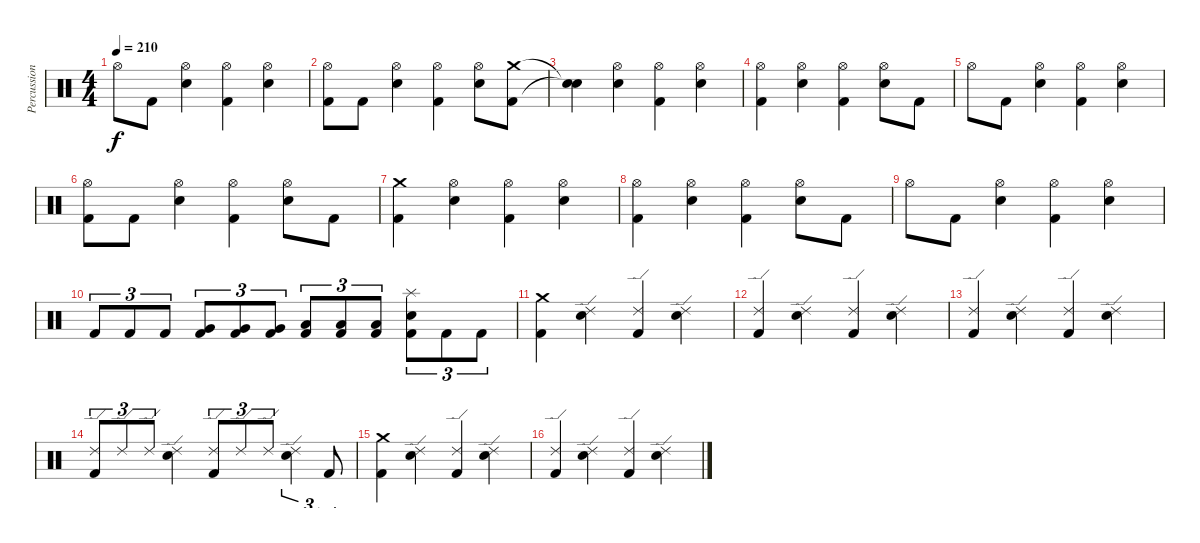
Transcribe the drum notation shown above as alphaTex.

\track ("Percussions" "Percussion") {instrument percussion}
\staff {score}
\articulation defaults
\ts (4 4)
\tempo 210
\clef neutral
\ks c "Hi-Hat (open)".8{dy f} "Kick (hit) 2".8
("Hi-Hat (open)" "Snare (hit) 2").4 ("Hi-Hat (open)" "Kick (hit) 2").4 ("Hi-Hat (open)" "Snare (hit) 2").4 |
("Hi-Hat (open)" "Kick (hit) 2").8 "Kick (hit) 2".8 ("Hi-Hat (open)" "Snare (hit) 2").4 ("Hi-Hat (open)" "Kick (hit) 2").4 ("Hi-Hat (open)" "Snare (hit) 2").8 ("Crash medium (hit)" "Kick (hit) 2").8 |
("Snare (hit)"{t} "Snare (hit)"{t}).4 ("Hi-Hat (open)" "Snare (hit) 2").4 ("Hi-Hat (open)" "Kick (hit) 2").4 ("Hi-Hat (open)" "Snare (hit) 2").4 |
("Hi-Hat (open)" "Kick (hit) 2").4 ("Hi-Hat (open)" "Snare (hit) 2").4 ("Hi-Hat (open)" "Kick (hit) 2").4 ("Hi-Hat (open)" "Snare (hit) 2").8 "Kick (hit) 2".8 |
"Hi-Hat (open)".8 "Kick (hit) 2".8 ("Hi-Hat (open)" "Snare (hit) 2").4 ("Hi-Hat (open)" "Kick (hit) 2").4 ("Hi-Hat (open)" "Snare (hit) 2").4 |
("Hi-Hat (open)" "Kick (hit) 2").8 "Kick (hit) 2".8 ("Hi-Hat (open)" "Snare (hit) 2").4 ("Hi-Hat (open)" "Kick (hit) 2").4 ("Hi-Hat (open)" "Snare (hit) 2").8 "Kick (hit) 2".8 |
("Crash medium (hit)" "Kick (hit) 2").4 ("Hi-Hat (open)" "Snare (hit) 2").4 ("Hi-Hat (open)" "Kick (hit) 2").4 ("Hi-Hat (open)" "Snare (hit) 2").4 |
("Hi-Hat (open)" "Kick (hit) 2").4 ("Hi-Hat (open)" "Snare (hit) 2").4 ("Hi-Hat (open)" "Kick (hit) 2").4 ("Hi-Hat (open)" "Snare (hit) 2").8 "Kick (hit) 2".8 |
"Hi-Hat (open)".8 "Kick (hit) 2".8 ("Hi-Hat (open)" "Snare (hit) 2").4 ("Hi-Hat (open)" "Kick (hit) 2").4 ("Hi-Hat (open)" "Snare (hit) 2").4 |
"Kick (hit) 2".8{tu (3 2)} "Kick (hit) 2".8{tu (3 2)} "Kick (hit) 2".8{tu (3 2)} ("Very Low Tom (hit)" "Kick (hit) 2").8{tu (3 2)} ("Very Low Tom (hit)" "Kick (hit) 2").8{tu (3 2)} ("Very Low Tom (hit)" "Kick (hit) 2").8{tu (3 2)} ("Low Floor Tom (hit)" "Kick (hit) 2").8{tu (3 2)} ("Low Floor Tom (hit)" "Kick (hit) 2").8{tu (3 2)} ("Low Floor Tom (hit)" "Kick (hit) 2").8{tu (3 2)} ("Splash (hit)" "Snare (hit) 2" "Kick (hit) 2").8{tu (3 2)} "Kick (hit) 2".8{tu (3 2)} "Kick (hit) 2".8{tu (3 2)} |
("Crash medium (hit)" "Kick (hit) 2").4 ("Ride (edge) 2" "Snare (hit) 2").4 ("Ride (edge) 2" "Kick (hit) 2").4 ("Ride (edge) 2" "Snare (hit) 2").4 |
("Ride (edge) 2" "Kick (hit) 2").4 ("Ride (edge) 2" "Snare (hit) 2").4 ("Ride (edge) 2" "Kick (hit) 2").4 ("Ride (edge) 2" "Snare (hit) 2").4 |
("Ride (edge) 2" "Kick (hit) 2").4 ("Ride (edge) 2" "Snare (hit) 2").4 ("Ride (edge) 2" "Kick (hit) 2").4 ("Ride (edge) 2" "Snare (hit) 2").4 |
("Ride (edge) 2" "Kick (hit) 2").8{tu (3 2)} "Ride (edge) 2".8{tu (3 2)} "Ride (edge) 2".8{tu (3 2)} ("Ride (edge) 2" "Snare (hit) 2").4 ("Ride (edge) 2" "Kick (hit) 2").8{tu (3 2)} "Ride (edge) 2".8{tu (3 2)} "Ride (edge) 2".8{tu (3 2)} ("Ride (edge) 2" "Snare (hit) 2").4{tu (3 2)} "Kick (hit) 2".8{tu (3 2)} |
("Crash medium (hit)" "Kick (hit) 2").4 ("Ride (edge) 2" "Snare (hit) 2").4 ("Ride (edge) 2" "Kick (hit) 2").4 ("Ride (edge) 2" "Snare (hit) 2").4 |
("Ride (edge) 2" "Kick (hit) 2").4 ("Ride (edge) 2" "Snare (hit) 2").4 ("Ride (edge) 2" "Kick (hit) 2").4 ("Ride (edge) 2" "Snare (hit) 2").4
